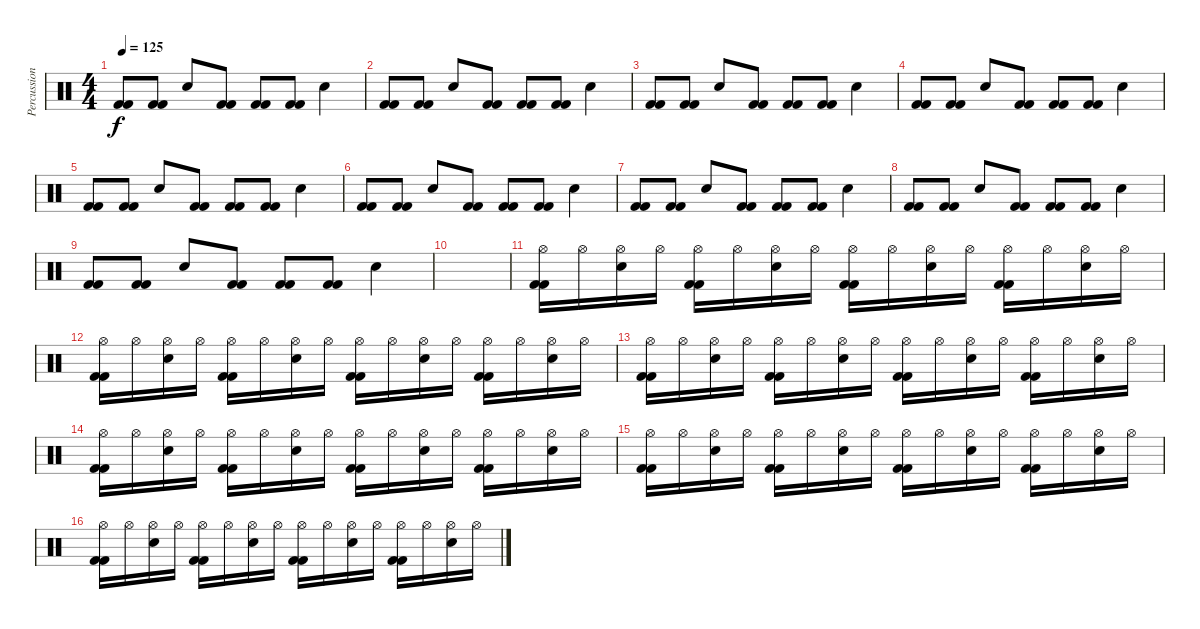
\track ("Percussioni" "Percussion") {instrument percussion}
\staff {score}
\articulation defaults
\ts (4 4)
\tempo 125
\clef neutral
\ks c
("Kick (hit) 2" "Kick (hit) 2").8{dy f} ("Kick (hit) 2" "Kick (hit) 2").8 "Electric Snare (hit)".8 ("Kick (hit) 2" "Kick (hit) 2").8 ("Kick (hit) 2" "Kick (hit) 2").8 ("Kick (hit) 2" "Kick (hit) 2").8 "Electric Snare (hit)".4 |
("Kick (hit) 2" "Kick (hit) 2").8 ("Kick (hit) 2" "Kick (hit) 2").8 "Electric Snare (hit)".8 ("Kick (hit) 2" "Kick (hit) 2").8 ("Kick (hit) 2" "Kick (hit) 2").8 ("Kick (hit) 2" "Kick (hit) 2").8 "Electric Snare (hit)".4 |
("Kick (hit) 2" "Kick (hit) 2").8 ("Kick (hit) 2" "Kick (hit) 2").8 "Electric Snare (hit)".8 ("Kick (hit) 2" "Kick (hit) 2").8 ("Kick (hit) 2" "Kick (hit) 2").8 ("Kick (hit) 2" "Kick (hit) 2").8 "Electric Snare (hit)".4 |
("Kick (hit) 2" "Kick (hit) 2").8 ("Kick (hit) 2" "Kick (hit) 2").8 "Electric Snare (hit)".8 ("Kick (hit) 2" "Kick (hit) 2").8 ("Kick (hit) 2" "Kick (hit) 2").8 ("Kick (hit) 2" "Kick (hit) 2").8 "Electric Snare (hit)".4 |
("Kick (hit) 2" "Kick (hit) 2").8 ("Kick (hit) 2" "Kick (hit) 2").8 "Electric Snare (hit)".8 ("Kick (hit) 2" "Kick (hit) 2").8 ("Kick (hit) 2" "Kick (hit) 2").8 ("Kick (hit) 2" "Kick (hit) 2").8 "Electric Snare (hit)".4 |
("Kick (hit) 2" "Kick (hit) 2").8 ("Kick (hit) 2" "Kick (hit) 2").8 "Electric Snare (hit)".8 ("Kick (hit) 2" "Kick (hit) 2").8 ("Kick (hit) 2" "Kick (hit) 2").8 ("Kick (hit) 2" "Kick (hit) 2").8 "Electric Snare (hit)".4 |
("Kick (hit) 2" "Kick (hit) 2").8 ("Kick (hit) 2" "Kick (hit) 2").8 "Electric Snare (hit)".8 ("Kick (hit) 2" "Kick (hit) 2").8 ("Kick (hit) 2" "Kick (hit) 2").8 ("Kick (hit) 2" "Kick (hit) 2").8 "Electric Snare (hit)".4 |
("Kick (hit) 2" "Kick (hit) 2").8 ("Kick (hit) 2" "Kick (hit) 2").8 "Electric Snare (hit)".8 ("Kick (hit) 2" "Kick (hit) 2").8 ("Kick (hit) 2" "Kick (hit) 2").8 ("Kick (hit) 2" "Kick (hit) 2").8 "Electric Snare (hit)".4 |
("Kick (hit) 2" "Kick (hit) 2").8 ("Kick (hit) 2" "Kick (hit) 2").8 "Electric Snare (hit)".8 ("Kick (hit) 2" "Kick (hit) 2").8 ("Kick (hit) 2" "Kick (hit) 2").8 ("Kick (hit) 2" "Kick (hit) 2").8 "Electric Snare (hit)".4 |
|
("Hi-Hat (open)" "Kick (hit) 2" "Kick (hit) 2").16 "Hi-Hat (open)".16 ("Hi-Hat (open)" "Electric Snare (hit)").16 "Hi-Hat (open)".16 ("Hi-Hat (open)" "Kick (hit) 2" "Kick (hit) 2").16 "Hi-Hat (open)".16 ("Hi-Hat (open)" "Electric Snare (hit)").16 "Hi-Hat (open)".16 ("Hi-Hat (open)" "Kick (hit) 2" "Kick (hit) 2").16 "Hi-Hat (open)".16 ("Hi-Hat (open)" "Electric Snare (hit)").16 "Hi-Hat (open)".16 ("Hi-Hat (open)" "Kick (hit) 2" "Kick (hit) 2").16 "Hi-Hat (open)".16 ("Hi-Hat (open)" "Electric Snare (hit)").16 "Hi-Hat (open)".16 |
("Hi-Hat (open)" "Kick (hit) 2" "Kick (hit) 2").16 "Hi-Hat (open)".16 ("Hi-Hat (open)" "Electric Snare (hit)").16 "Hi-Hat (open)".16 ("Hi-Hat (open)" "Kick (hit) 2" "Kick (hit) 2").16 "Hi-Hat (open)".16 ("Hi-Hat (open)" "Electric Snare (hit)").16 "Hi-Hat (open)".16 ("Hi-Hat (open)" "Kick (hit) 2" "Kick (hit) 2").16 "Hi-Hat (open)".16 ("Hi-Hat (open)" "Electric Snare (hit)").16 "Hi-Hat (open)".16 ("Hi-Hat (open)" "Kick (hit) 2" "Kick (hit) 2").16 "Hi-Hat (open)".16 ("Hi-Hat (open)" "Electric Snare (hit)").16 "Hi-Hat (open)".16 |
("Hi-Hat (open)" "Kick (hit) 2" "Kick (hit) 2").16 "Hi-Hat (open)".16 ("Hi-Hat (open)" "Electric Snare (hit)").16 "Hi-Hat (open)".16 ("Hi-Hat (open)" "Kick (hit) 2" "Kick (hit) 2").16 "Hi-Hat (open)".16 ("Hi-Hat (open)" "Electric Snare (hit)").16 "Hi-Hat (open)".16 ("Hi-Hat (open)" "Kick (hit) 2" "Kick (hit) 2").16 "Hi-Hat (open)".16 ("Hi-Hat (open)" "Electric Snare (hit)").16 "Hi-Hat (open)".16 ("Hi-Hat (open)" "Kick (hit) 2" "Kick (hit) 2").16 "Hi-Hat (open)".16 ("Hi-Hat (open)" "Electric Snare (hit)").16 "Hi-Hat (open)".16 |
("Hi-Hat (open)" "Kick (hit) 2" "Kick (hit) 2").16 "Hi-Hat (open)".16 ("Hi-Hat (open)" "Electric Snare (hit)").16 "Hi-Hat (open)".16 ("Hi-Hat (open)" "Kick (hit) 2" "Kick (hit) 2").16 "Hi-Hat (open)".16 ("Hi-Hat (open)" "Electric Snare (hit)").16 "Hi-Hat (open)".16 ("Hi-Hat (open)" "Kick (hit) 2" "Kick (hit) 2").16 "Hi-Hat (open)".16 ("Hi-Hat (open)" "Electric Snare (hit)").16 "Hi-Hat (open)".16 ("Hi-Hat (open)" "Kick (hit) 2" "Kick (hit) 2").16 "Hi-Hat (open)".16 ("Hi-Hat (open)" "Electric Snare (hit)").16 "Hi-Hat (open)".16 |
("Hi-Hat (open)" "Kick (hit) 2" "Kick (hit) 2").16 "Hi-Hat (open)".16 ("Hi-Hat (open)" "Electric Snare (hit)").16 "Hi-Hat (open)".16 ("Hi-Hat (open)" "Kick (hit) 2" "Kick (hit) 2").16 "Hi-Hat (open)".16 ("Hi-Hat (open)" "Electric Snare (hit)").16 "Hi-Hat (open)".16 ("Hi-Hat (open)" "Kick (hit) 2" "Kick (hit) 2").16 "Hi-Hat (open)".16 ("Hi-Hat (open)" "Electric Snare (hit)").16 "Hi-Hat (open)".16 ("Hi-Hat (open)" "Kick (hit) 2" "Kick (hit) 2").16 "Hi-Hat (open)".16 ("Hi-Hat (open)" "Electric Snare (hit)").16 "Hi-Hat (open)".16 |
("Hi-Hat (open)" "Kick (hit) 2" "Kick (hit) 2").16 "Hi-Hat (open)".16 ("Hi-Hat (open)" "Electric Snare (hit)").16 "Hi-Hat (open)".16 ("Hi-Hat (open)" "Kick (hit) 2" "Kick (hit) 2").16 "Hi-Hat (open)".16 ("Hi-Hat (open)" "Electric Snare (hit)").16 "Hi-Hat (open)".16 ("Hi-Hat (open)" "Kick (hit) 2" "Kick (hit) 2").16 "Hi-Hat (open)".16 ("Hi-Hat (open)" "Electric Snare (hit)").16 "Hi-Hat (open)".16 ("Hi-Hat (open)" "Kick (hit) 2" "Kick (hit) 2").16 "Hi-Hat (open)".16 ("Hi-Hat (open)" "Electric Snare (hit)").16 "Hi-Hat (open)".16
